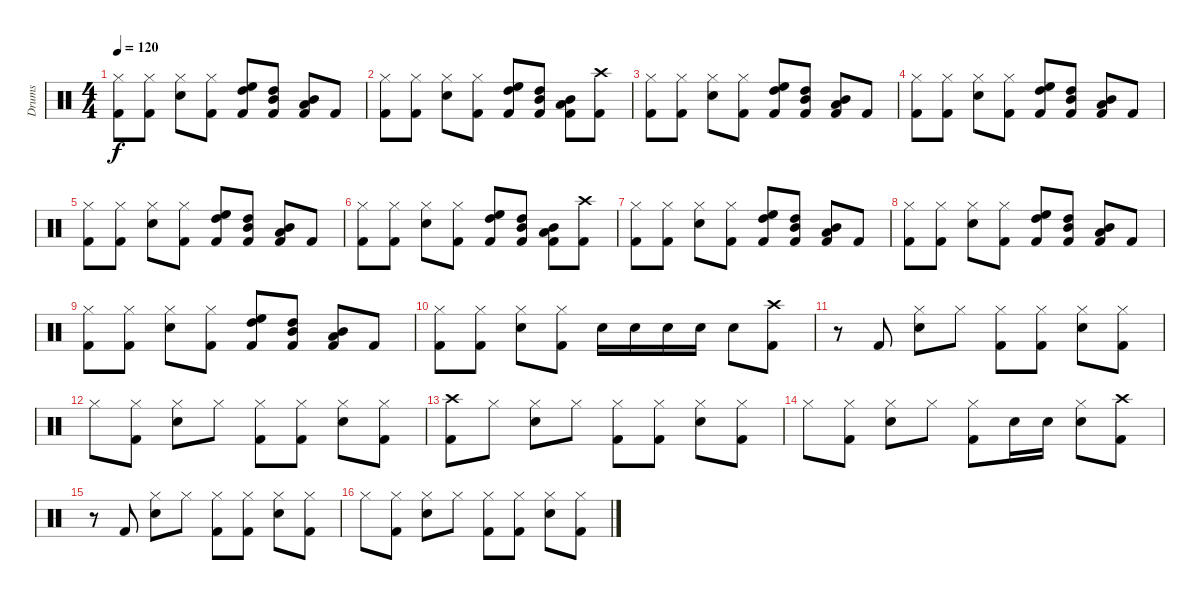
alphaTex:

\track ("Drums" "Drums") {instrument percussion}
\staff {score}
\articulation defaults
\ts (4 4)
\tempo 120
\clef neutral
\ks c
("Hi-Hat (closed)" "Kick (hit) 2").8{dy f} ("Hi-Hat (closed)" "Kick (hit) 2").8 ("Hi-Hat (closed)" "Snare (hit) 2").8 ("Hi-Hat (closed)" "Kick (hit) 2").8 ("High Floor Tom (hit)" "High Tom (hit)" "Kick (hit) 2").8 ("High Tom (hit)" "Mid Tom (hit)" "Kick (hit) 2").8 ("Mid Tom (hit)" "Low Tom (hit)" "Kick (hit) 2").8 "Kick (hit) 2".8 |
("Hi-Hat (closed)" "Kick (hit) 2").8 ("Hi-Hat (closed)" "Kick (hit) 2").8 ("Hi-Hat (closed)" "Snare (hit) 2").8 ("Hi-Hat (closed)" "Kick (hit) 2").8 ("High Floor Tom (hit)" "High Tom (hit)" "Kick (hit) 2").8 ("High Tom (hit)" "Mid Tom (hit)" "Kick (hit) 2").8 ("Mid Tom (hit)" "Low Tom (hit)" "Kick (hit) 2").8 ("Crash high (hit)" "Kick (hit) 2").8 |
("Hi-Hat (closed)" "Kick (hit) 2").8 ("Hi-Hat (closed)" "Kick (hit) 2").8 ("Hi-Hat (closed)" "Snare (hit) 2").8 ("Hi-Hat (closed)" "Kick (hit) 2").8 ("High Floor Tom (hit)" "High Tom (hit)" "Kick (hit) 2").8 ("High Tom (hit)" "Mid Tom (hit)" "Kick (hit) 2").8 ("Mid Tom (hit)" "Low Tom (hit)" "Kick (hit) 2").8 "Kick (hit) 2".8 |
("Hi-Hat (closed)" "Kick (hit) 2").8 ("Hi-Hat (closed)" "Kick (hit) 2").8 ("Hi-Hat (closed)" "Snare (hit) 2").8 ("Hi-Hat (closed)" "Kick (hit) 2").8 ("High Floor Tom (hit)" "High Tom (hit)" "Kick (hit) 2").8 ("High Tom (hit)" "Mid Tom (hit)" "Kick (hit) 2").8 ("Mid Tom (hit)" "Low Tom (hit)" "Kick (hit) 2").8 "Kick (hit) 2".8 |
("Hi-Hat (closed)" "Kick (hit) 2").8 ("Hi-Hat (closed)" "Kick (hit) 2").8 ("Hi-Hat (closed)" "Snare (hit) 2").8 ("Hi-Hat (closed)" "Kick (hit) 2").8 ("High Floor Tom (hit)" "High Tom (hit)" "Kick (hit) 2").8 ("High Tom (hit)" "Mid Tom (hit)" "Kick (hit) 2").8 ("Mid Tom (hit)" "Low Tom (hit)" "Kick (hit) 2").8 "Kick (hit) 2".8 |
("Hi-Hat (closed)" "Kick (hit) 2").8 ("Hi-Hat (closed)" "Kick (hit) 2").8 ("Hi-Hat (closed)" "Snare (hit) 2").8 ("Hi-Hat (closed)" "Kick (hit) 2").8 ("High Floor Tom (hit)" "High Tom (hit)" "Kick (hit) 2").8 ("High Tom (hit)" "Mid Tom (hit)" "Kick (hit) 2").8 ("Mid Tom (hit)" "Low Tom (hit)" "Kick (hit) 2").8 ("Crash high (hit)" "Kick (hit) 2").8 |
("Hi-Hat (closed)" "Kick (hit) 2").8 ("Hi-Hat (closed)" "Kick (hit) 2").8 ("Hi-Hat (closed)" "Snare (hit) 2").8 ("Hi-Hat (closed)" "Kick (hit) 2").8 ("High Floor Tom (hit)" "High Tom (hit)" "Kick (hit) 2").8 ("High Tom (hit)" "Mid Tom (hit)" "Kick (hit) 2").8 ("Mid Tom (hit)" "Low Tom (hit)" "Kick (hit) 2").8 "Kick (hit) 2".8 |
("Hi-Hat (closed)" "Kick (hit) 2").8 ("Hi-Hat (closed)" "Kick (hit) 2").8 ("Hi-Hat (closed)" "Snare (hit) 2").8 ("Hi-Hat (closed)" "Kick (hit) 2").8 ("High Floor Tom (hit)" "High Tom (hit)" "Kick (hit) 2").8 ("High Tom (hit)" "Mid Tom (hit)" "Kick (hit) 2").8 ("Mid Tom (hit)" "Low Tom (hit)" "Kick (hit) 2").8 "Kick (hit) 2".8 |
("Hi-Hat (closed)" "Kick (hit) 2").8 ("Hi-Hat (closed)" "Kick (hit) 2").8 ("Hi-Hat (closed)" "Snare (hit) 2").8 ("Hi-Hat (closed)" "Kick (hit) 2").8 ("High Floor Tom (hit)" "High Tom (hit)" "Kick (hit) 2").8 ("High Tom (hit)" "Mid Tom (hit)" "Kick (hit) 2").8 ("Mid Tom (hit)" "Low Tom (hit)" "Kick (hit) 2").8 "Kick (hit) 2".8 |
("Hi-Hat (closed)" "Kick (hit) 2").8 ("Hi-Hat (closed)" "Kick (hit) 2").8 ("Hi-Hat (closed)" "Snare (hit) 2").8 ("Hi-Hat (closed)" "Kick (hit) 2").8 "Snare (hit) 2".16 "Snare (hit) 2".16 "Snare (hit) 2".16 "Snare (hit) 2".16 "Snare (hit) 2".8 ("Crash high (hit)" "Kick (hit) 2").8 |
r.8 "Kick (hit) 2".8 ("Hi-Hat (closed)" "Snare (hit) 2").8 "Hi-Hat (closed)".8 ("Hi-Hat (closed)" "Kick (hit) 2").8 ("Hi-Hat (closed)" "Kick (hit) 2").8 ("Hi-Hat (closed)" "Snare (hit) 2").8 ("Hi-Hat (closed)" "Kick (hit) 2").8 |
"Hi-Hat (closed)".8 ("Hi-Hat (closed)" "Kick (hit) 2").8 ("Hi-Hat (closed)" "Snare (hit) 2").8 "Hi-Hat (closed)".8 ("Hi-Hat (closed)" "Kick (hit) 2").8 ("Hi-Hat (closed)" "Kick (hit) 2").8 ("Hi-Hat (closed)" "Snare (hit) 2").8 ("Hi-Hat (closed)" "Kick (hit) 2").8 |
("Crash high (hit)" "Kick (hit) 2").8 "Hi-Hat (closed)".8 ("Hi-Hat (closed)" "Snare (hit) 2").8 "Hi-Hat (closed)".8 ("Hi-Hat (closed)" "Kick (hit) 2").8 ("Hi-Hat (closed)" "Kick (hit) 2").8 ("Hi-Hat (closed)" "Snare (hit) 2").8 ("Hi-Hat (closed)" "Kick (hit) 2").8 |
"Hi-Hat (closed)".8 ("Hi-Hat (closed)" "Kick (hit) 2").8 ("Hi-Hat (closed)" "Snare (hit) 2").8 "Hi-Hat (closed)".8 ("Hi-Hat (closed)" "Kick (hit) 2").8 "Snare (hit) 2".16 "Snare (hit) 2".16 ("Hi-Hat (closed)" "Snare (hit) 2").8 ("Crash high (hit)" "Kick (hit) 2").8 |
r.8 "Kick (hit) 2".8 ("Hi-Hat (closed)" "Snare (hit) 2").8 "Hi-Hat (closed)".8 ("Hi-Hat (closed)" "Kick (hit) 2").8 ("Hi-Hat (closed)" "Kick (hit) 2").8 ("Hi-Hat (closed)" "Snare (hit) 2").8 ("Hi-Hat (closed)" "Kick (hit) 2").8 |
"Hi-Hat (closed)".8 ("Hi-Hat (closed)" "Kick (hit) 2").8 ("Hi-Hat (closed)" "Snare (hit) 2").8 "Hi-Hat (closed)".8 ("Hi-Hat (closed)" "Kick (hit) 2").8 ("Hi-Hat (closed)" "Kick (hit) 2").8 ("Hi-Hat (closed)" "Snare (hit) 2").8 ("Hi-Hat (closed)" "Kick (hit) 2").8
